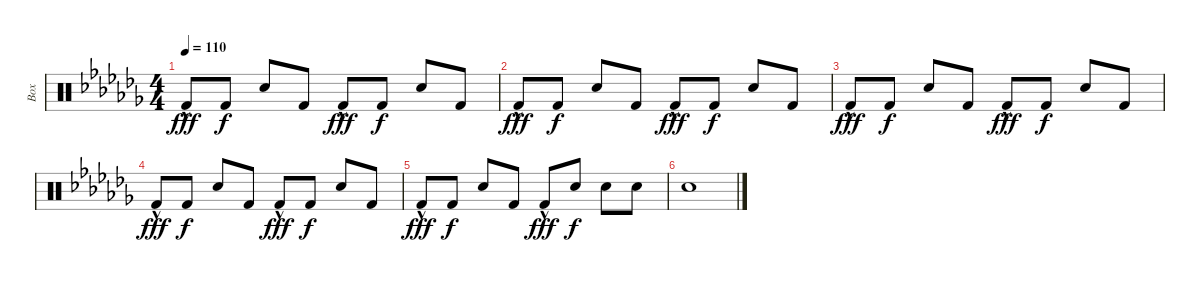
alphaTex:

\track ("Box" "Box") {instrument percussion}
\staff {score}
\articulation defaults
\ts (4 4)
\tempo 110
\clef neutral
\ks abminor "Kick (hit) 2"{hac}.8{dy fff volume 13} "Kick (hit) 2".8{dy f volume 5} "Snare (hit) 2".8{volume 13} "Kick (hit) 2".8{volume 5} "Kick (hit) 2"{hac}.8{dy fff volume 13} "Kick (hit) 2".8{dy f volume 5} "Snare (hit) 2".8{volume 13} "Kick (hit) 2".8{volume 5}
|
"Kick (hit) 2"{hac}.8{dy fff volume 13} "Kick (hit) 2".8{dy f volume 5} "Snare (hit) 2".8{volume 13} "Kick (hit) 2".8{volume 5} "Kick (hit) 2"{hac}.8{dy fff volume 13} "Kick (hit) 2".8{dy f volume 5} "Snare (hit) 2".8{volume 13} "Kick (hit) 2".8{volume 5} |
"Kick (hit) 2"{hac}.8{dy fff volume 13} "Kick (hit) 2".8{dy f volume 5} "Snare (hit) 2".8{volume 13} "Kick (hit) 2".8{volume 5} "Kick (hit) 2"{hac}.8{dy fff volume 13} "Kick (hit) 2".8{dy f volume 5} "Snare (hit) 2".8{volume 13} "Kick (hit) 2".8{volume 5} |
"Kick (hit) 2"{hac}.8{dy fff volume 13} "Kick (hit) 2".8{dy f volume 5} "Snare (hit) 2".8{volume 13} "Kick (hit) 2".8{volume 5} "Kick (hit) 2"{hac}.8{dy fff volume 13} "Kick (hit) 2".8{dy f volume 5} "Snare (hit) 2".8{volume 13} "Kick (hit) 2".8{volume 5} |
"Kick (hit) 2"{hac}.8{dy fff volume 13} "Kick (hit) 2".8{dy f volume 5} "Snare (hit) 2".8{volume 13} "Kick (hit) 2".8{volume 5} "Kick (hit) 2"{hac}.8{dy fff volume 13} "Snare (hit) 2".8{dy f} "Snare (hit) 2".8 "Snare (hit) 2".8 |
"Snare (hit) 2".1
